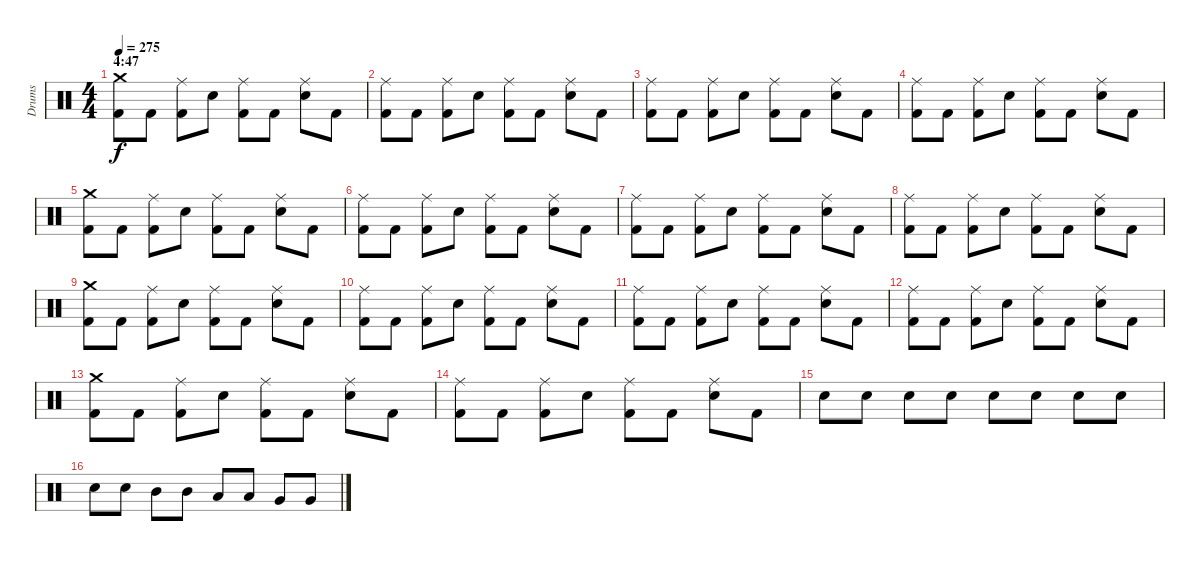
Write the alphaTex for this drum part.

\track ("Drums" "Drums") {instrument percussion}
\staff {score}
\articulation defaults
\ts (4 4)
\section ("" "4:47")
\tempo 275
\clef neutral
\ks c
("Crash medium (hit)" "Kick (hit) 2").8{dy f} "Kick (hit) 2".8 ("Ride (middle)" "Kick (hit) 2").8 "Electric Snare (hit)".8 ("Ride (middle)" "Kick (hit) 2").8 "Kick (hit) 2".8 ("Ride (middle)" "Electric Snare (hit)").8 "Kick (hit) 2".8 |
("Ride (middle)" "Kick (hit) 2").8 "Kick (hit) 2".8 ("Ride (middle)" "Kick (hit) 2").8 "Electric Snare (hit)".8 ("Ride (middle)" "Kick (hit) 2").8 "Kick (hit) 2".8 ("Ride (middle)" "Electric Snare (hit)").8 "Kick (hit) 2".8 |
("Ride (middle)" "Kick (hit) 2").8 "Kick (hit) 2".8 ("Ride (middle)" "Kick (hit) 2").8 "Electric Snare (hit)".8 ("Ride (middle)" "Kick (hit) 2").8 "Kick (hit) 2".8 ("Ride (middle)" "Electric Snare (hit)").8 "Kick (hit) 2".8 |
("Ride (middle)" "Kick (hit) 2").8 "Kick (hit) 2".8 ("Ride (middle)" "Kick (hit) 2").8 "Electric Snare (hit)".8 ("Ride (middle)" "Kick (hit) 2").8 "Kick (hit) 2".8 ("Ride (middle)" "Electric Snare (hit)").8 "Kick (hit) 2".8 |
("Crash medium (hit)" "Kick (hit) 2").8 "Kick (hit) 2".8 ("Ride (middle)" "Kick (hit) 2").8 "Electric Snare (hit)".8 ("Ride (middle)" "Kick (hit) 2").8 "Kick (hit) 2".8 ("Ride (middle)" "Electric Snare (hit)").8 "Kick (hit) 2".8 |
("Ride (middle)" "Kick (hit) 2").8 "Kick (hit) 2".8 ("Ride (middle)" "Kick (hit) 2").8 "Electric Snare (hit)".8 ("Ride (middle)" "Kick (hit) 2").8 "Kick (hit) 2".8 ("Ride (middle)" "Electric Snare (hit)").8 "Kick (hit) 2".8 |
("Ride (middle)" "Kick (hit) 2").8 "Kick (hit) 2".8 ("Ride (middle)" "Kick (hit) 2").8 "Electric Snare (hit)".8 ("Ride (middle)" "Kick (hit) 2").8 "Kick (hit) 2".8 ("Ride (middle)" "Electric Snare (hit)").8 "Kick (hit) 2".8 |
("Ride (middle)" "Kick (hit) 2").8 "Kick (hit) 2".8 ("Ride (middle)" "Kick (hit) 2").8 "Electric Snare (hit)".8 ("Ride (middle)" "Kick (hit) 2").8 "Kick (hit) 2".8 ("Ride (middle)" "Electric Snare (hit)").8 "Kick (hit) 2".8 |
("Crash medium (hit)" "Kick (hit) 2").8 "Kick (hit) 2".8 ("Ride (middle)" "Kick (hit) 2").8 "Electric Snare (hit)".8 ("Ride (middle)" "Kick (hit) 2").8 "Kick (hit) 2".8 ("Ride (middle)" "Electric Snare (hit)").8 "Kick (hit) 2".8 |
("Ride (middle)" "Kick (hit) 2").8 "Kick (hit) 2".8 ("Ride (middle)" "Kick (hit) 2").8 "Electric Snare (hit)".8 ("Ride (middle)" "Kick (hit) 2").8 "Kick (hit) 2".8 ("Ride (middle)" "Electric Snare (hit)").8 "Kick (hit) 2".8 |
("Ride (middle)" "Kick (hit) 2").8 "Kick (hit) 2".8 ("Ride (middle)" "Kick (hit) 2").8 "Electric Snare (hit)".8 ("Ride (middle)" "Kick (hit) 2").8 "Kick (hit) 2".8 ("Ride (middle)" "Electric Snare (hit)").8 "Kick (hit) 2".8 |
("Ride (middle)" "Kick (hit) 2").8 "Kick (hit) 2".8 ("Ride (middle)" "Kick (hit) 2").8 "Electric Snare (hit)".8 ("Ride (middle)" "Kick (hit) 2").8 "Kick (hit) 2".8 ("Ride (middle)" "Electric Snare (hit)").8 "Kick (hit) 2".8 |
("Crash medium (hit)" "Kick (hit) 2").8 "Kick (hit) 2".8 ("Ride (middle)" "Kick (hit) 2").8 "Electric Snare (hit)".8 ("Ride (middle)" "Kick (hit) 2").8 "Kick (hit) 2".8 ("Ride (middle)" "Electric Snare (hit)").8 "Kick (hit) 2".8 |
("Ride (middle)" "Kick (hit) 2").8 "Kick (hit) 2".8 ("Ride (middle)" "Kick (hit) 2").8 "Electric Snare (hit)".8 ("Ride (middle)" "Kick (hit) 2").8 "Kick (hit) 2".8 ("Ride (middle)" "Electric Snare (hit)").8 "Kick (hit) 2".8 |
"Electric Snare (hit)".8 "Electric Snare (hit)".8 "Electric Snare (hit)".8 "Electric Snare (hit)".8 "Electric Snare (hit)".8 "Electric Snare (hit)".8 "Electric Snare (hit)".8 "Electric Snare (hit)".8 |
"Electric Snare (hit)".8 "Electric Snare (hit)".8 "Mid Tom (hit)".8 "Mid Tom (hit)".8 "Low Tom (hit)".8 "Low Tom (hit)".8 "Very Low Tom (hit)".8 "Very Low Tom (hit)".8
